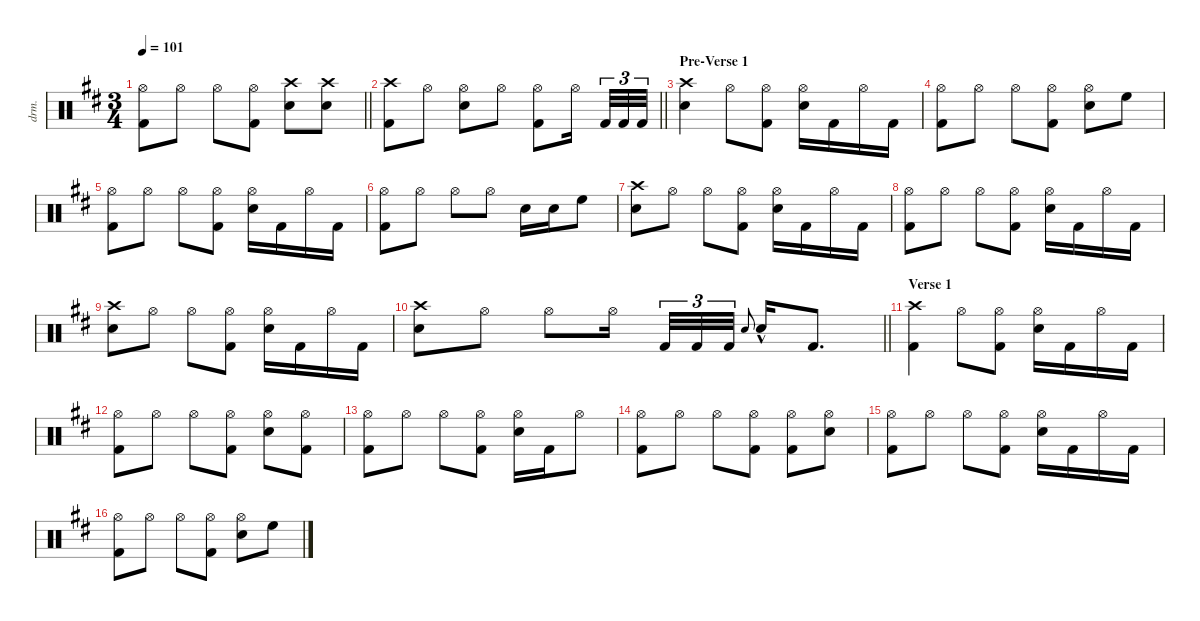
\defaultSystemsLayout 4
\hideDynamics
\bracketExtendMode nobrackets
\otherSystemsTrackNameOrientation horizontal
\track ("Lars Ulrich" "drm.") {defaultSystemsLayout 4 instrument percussion}
\staff {score}
\articulation defaults
\ts (3 4)
\tempo 101
\clef neutral
\barLineRight lightlight
\ks bminor
("Hi-Hat (open)"{acc forcenatural} "Kick (hit) 2"{acc forcenatural}).8{dy mf} "Hi-Hat (open)"{acc forcenatural}.8 "Hi-Hat (open)"{acc forcenatural}.8 ("Hi-Hat (open)"{acc forcenatural} "Kick (hit) 2"{acc forcenatural}).8 ("Crash high (hit)"{acc forcenatural} "Snare (hit) 2"{acc forcenatural}).8{dy f} ("Crash high (hit)"{acc forcenatural} "Snare (hit) 2"{acc forcenatural}).8 |
\barLineRight lightlight
("Crash high (hit)"{acc forcenatural} "Kick (hit) 2"{acc forcenatural}).8 "Hi-Hat (open)"{acc forcenatural}.8{dy mf} ("Hi-Hat (open)"{acc forcenatural} "Snare (hit) 2"{acc forcenatural}).8 "Hi-Hat (open)"{acc forcenatural}.8 ("Hi-Hat (open)"{acc forcenatural} "Kick (hit) 2"{acc forcenatural}).8 "Hi-Hat (open)"{acc forcenatural}.16 "Kick (hit) 2"{acc forcenatural}.32{tu (3 2) dy fff} "Kick (hit) 2"{acc forcenatural}.32{tu (3 2)} "Kick (hit) 2"{acc forcenatural}.32{tu (3 2)} |
\section ("" "Pre-Verse 1")
("Crash high (hit)"{acc forcenatural} "Snare (hit) 2"{acc forcenatural}).4{dy f} "Hi-Hat (open)"{acc forcenatural}.8{dy mf} ("Hi-Hat (open)"{acc forcenatural} "Kick (hit) 2"{acc forcenatural}).8 ("Hi-Hat (open)"{acc forcenatural} "Snare (hit) 2"{acc forcenatural}).16 "Kick (hit) 2"{acc forcenatural}.16{dy fff} "Hi-Hat (open)"{acc forcenatural}.16{dy mf} "Kick (hit) 2"{acc forcenatural}.16{dy fff} |
("Hi-Hat (open)"{acc forcenatural} "Kick (hit) 2"{acc forcenatural}).8{dy mf} "Hi-Hat (open)"{acc forcenatural}.8 "Hi-Hat (open)"{acc forcenatural}.8 ("Hi-Hat (open)"{acc forcenatural} "Kick (hit) 2"{acc forcenatural}).8 ("Hi-Hat (open)"{acc forcenatural} "Snare (hit) 2"{acc forcenatural}).8 "High Floor Tom (hit)"{acc forcenatural}.8{dy fff} |
("Hi-Hat (open)"{acc forcenatural} "Kick (hit) 2"{acc forcenatural}).8{dy mf} "Hi-Hat (open)"{acc forcenatural}.8 "Hi-Hat (open)"{acc forcenatural}.8 ("Hi-Hat (open)"{acc forcenatural} "Kick (hit) 2"{acc forcenatural}).8 ("Hi-Hat (open)"{acc forcenatural} "Snare (hit) 2"{acc forcenatural}).16 "Kick (hit) 2"{acc forcenatural}.16{dy fff} "Hi-Hat (open)"{acc forcenatural}.16{dy mf} "Kick (hit) 2"{acc forcenatural}.16{dy fff} |
("Hi-Hat (open)"{acc forcenatural} "Kick (hit) 2"{acc forcenatural}).8{dy mf} "Hi-Hat (open)"{acc forcenatural}.8 "Hi-Hat (open)"{acc forcenatural}.8 "Hi-Hat (open)"{acc forcenatural}.8 "Snare (hit) 2"{acc forcenatural}.16{dy fff} "Snare (hit) 2"{acc forcenatural}.16 "High Floor Tom (hit)"{acc forcenatural}.8 |
("Crash high (hit)"{acc forcenatural} "Snare (hit) 2"{acc forcenatural}).8{dy f} "Hi-Hat (open)"{acc forcenatural}.8{dy mf} "Hi-Hat (open)"{acc forcenatural}.8 ("Hi-Hat (open)"{acc forcenatural} "Kick (hit) 2"{acc forcenatural}).8 ("Hi-Hat (open)"{acc forcenatural} "Snare (hit) 2"{acc forcenatural}).16 "Kick (hit) 2"{acc forcenatural}.16{dy fff} "Hi-Hat (open)"{acc forcenatural}.16{dy mf} "Kick (hit) 2"{acc forcenatural}.16{dy fff} |
("Hi-Hat (open)"{acc forcenatural} "Kick (hit) 2"{acc forcenatural}).8{dy mf} "Hi-Hat (open)"{acc forcenatural}.8 "Hi-Hat (open)"{acc forcenatural}.8 ("Hi-Hat (open)"{acc forcenatural} "Kick (hit) 2"{acc forcenatural}).8 ("Hi-Hat (open)"{acc forcenatural} "Snare (hit) 2"{acc forcenatural}).16 "Kick (hit) 2"{acc forcenatural}.16{dy fff} "Hi-Hat (open)"{acc forcenatural}.16{dy mf} "Kick (hit) 2"{acc forcenatural}.16{dy fff} |
("Crash high (hit)"{acc forcenatural} "Snare (hit) 2"{acc forcenatural}).8{dy f} "Hi-Hat (open)"{acc forcenatural}.8{dy mf} "Hi-Hat (open)"{acc forcenatural}.8 ("Hi-Hat (open)"{acc forcenatural} "Kick (hit) 2"{acc forcenatural}).8 ("Hi-Hat (open)"{acc forcenatural} "Snare (hit) 2"{acc forcenatural}).16 "Kick (hit) 2"{acc forcenatural}.16{dy fff} "Hi-Hat (open)"{acc forcenatural}.16{dy mf} "Kick (hit) 2"{acc forcenatural}.16{dy fff} |
\barLineRight lightlight
("Crash high (hit)"{acc forcenatural} "Snare (hit) 2"{acc forcenatural}).8{dy f} "Hi-Hat (open)"{acc forcenatural}.8{dy mf} "Hi-Hat (open)"{acc forcenatural}.8 "Hi-Hat (open)"{acc forcenatural}.16 "Kick (hit) 2"{acc forcenatural}.32{tu (3 2) dy fff} "Kick (hit) 2"{acc forcenatural}.32{tu (3 2)} "Kick (hit) 2"{acc forcenatural}.32{tu (3 2)} "Electric Snare (hit)"{acc forcenatural}.8{gr onbeat dy mp} "Snare (hit) 2"{hac acc forcenatural}.16{dy f} "Kick (hit) 2"{acc forcenatural}.8{d dy fff} |
\section ("" "Verse 1")
("Crash high (hit)"{acc forcenatural} "Kick (hit) 2"{acc forcenatural}).4{dy f} "Hi-Hat (open)"{acc forcenatural}.8{dy mf} ("Hi-Hat (open)"{acc forcenatural} "Kick (hit) 2"{acc forcenatural}).8 ("Hi-Hat (open)"{acc forcenatural} "Snare (hit) 2"{acc forcenatural}).16 "Kick (hit) 2"{acc forcenatural}.16{dy fff} "Hi-Hat (open)"{acc forcenatural}.16{dy mf} "Kick (hit) 2"{acc forcenatural}.16{dy fff} |
("Hi-Hat (open)"{acc forcenatural} "Kick (hit) 2"{acc forcenatural}).8{dy mf} "Hi-Hat (open)"{acc forcenatural}.8 "Hi-Hat (open)"{acc forcenatural}.8 ("Hi-Hat (open)"{acc forcenatural} "Kick (hit) 2"{acc forcenatural}).8 ("Hi-Hat (open)"{acc forcenatural} "Snare (hit) 2"{acc forcenatural}).8 ("Hi-Hat (open)"{acc forcenatural} "Kick (hit) 2"{acc forcenatural}).8 |
("Hi-Hat (open)"{acc forcenatural} "Kick (hit) 2"{acc forcenatural}).8 "Hi-Hat (open)"{acc forcenatural}.8 "Hi-Hat (open)"{acc forcenatural}.8 ("Hi-Hat (open)"{acc forcenatural} "Kick (hit) 2"{acc forcenatural}).8 ("Hi-Hat (open)"{acc forcenatural} "Snare (hit) 2"{acc forcenatural}).16 "Kick (hit) 2"{acc forcenatural}.16{dy fff} "Hi-Hat (open)"{acc forcenatural}.8{dy mf} |
("Hi-Hat (open)"{acc forcenatural} "Kick (hit) 2"{acc forcenatural}).8 "Hi-Hat (open)"{acc forcenatural}.8 "Hi-Hat (open)"{acc forcenatural}.8 ("Hi-Hat (open)"{acc forcenatural} "Kick (hit) 2"{acc forcenatural}).8 ("Hi-Hat (open)"{acc forcenatural} "Kick (hit) 2"{acc forcenatural}).8 ("Hi-Hat (open)"{acc forcenatural} "Snare (hit) 2"{acc forcenatural}).8 |
("Hi-Hat (open)"{acc forcenatural} "Kick (hit) 2"{acc forcenatural}).8 "Hi-Hat (open)"{acc forcenatural}.8 "Hi-Hat (open)"{acc forcenatural}.8 ("Hi-Hat (open)"{acc forcenatural} "Kick (hit) 2"{acc forcenatural}).8 ("Hi-Hat (open)"{acc forcenatural} "Snare (hit) 2"{acc forcenatural}).16 "Kick (hit) 2"{acc forcenatural}.16{dy fff} "Hi-Hat (open)"{acc forcenatural}.16{dy mf} "Kick (hit) 2"{acc forcenatural}.16{dy fff} |
("Hi-Hat (open)"{acc forcenatural} "Kick (hit) 2"{acc forcenatural}).8{dy mf} "Hi-Hat (open)"{acc forcenatural}.8 "Hi-Hat (open)"{acc forcenatural}.8 ("Hi-Hat (open)"{acc forcenatural} "Kick (hit) 2"{acc forcenatural}).8 ("Hi-Hat (open)"{acc forcenatural} "Snare (hit) 2"{acc forcenatural}).8 "High Floor Tom (hit)"{acc forcenatural}.8{dy fff}
